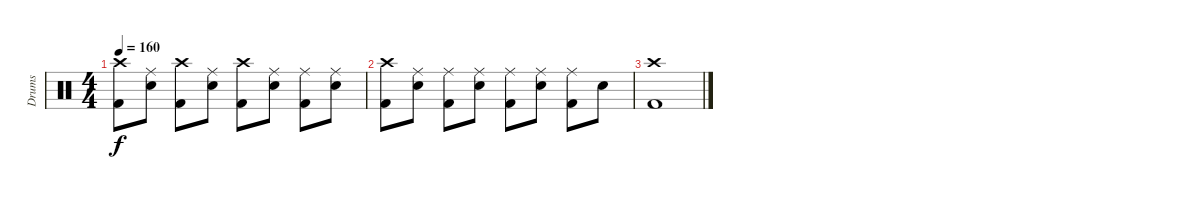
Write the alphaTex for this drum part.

\track ("Drums" "Drums") {instrument percussion}
\staff {score}
\articulation defaults
\ts (4 4)
\tempo 160
\clef neutral
\ks c
("Kick (hit) 2" "Crash high (hit)").8{dy f} ("Snare (hit) 2" "Ride (middle)").8 ("Kick (hit) 2" "Crash high (hit)").8 ("Snare (hit) 2" "Ride (middle)").8 ("Kick (hit) 2" "Crash high (hit)").8 ("Snare (hit) 2" "Ride (middle)").8 ("Kick (hit) 2" "Ride (middle)").8 ("Snare (hit) 2" "Ride (middle)").8 |
("Crash high (hit)" "Kick (hit) 2").8 ("Ride (middle)" "Snare (hit) 2").8 ("Ride (middle)" "Kick (hit) 2").8 ("Ride (middle)" "Snare (hit) 2").8 ("Ride (middle)" "Kick (hit) 2").8 ("Ride (middle)" "Snare (hit) 2").8 ("Ride (middle)" "Kick (hit) 2").8 "Snare (hit) 2".8 |
("Crash high (hit)" "Kick (hit) 2").1
